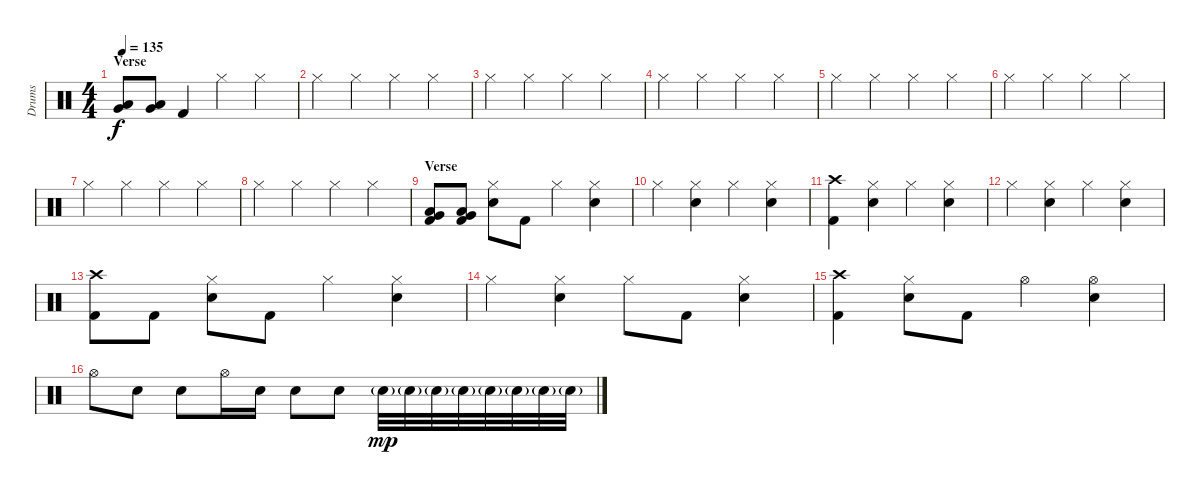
\track ("Drums" "Drums") {instrument percussion}
\staff {score}
\articulation defaults
\ts (4 4)
\section ("" "Verse")
\tempo 135
\clef neutral
\ks c
("Very Low Tom (hit)" "Low Tom (hit)").8{dy f} ("Very Low Tom (hit)" "Low Tom (hit)").8 "Kick (hit) 2".4 "Hi-Hat (closed)".4 "Hi-Hat (closed)".4 |
"Hi-Hat (closed)".4 "Hi-Hat (closed)".4 "Hi-Hat (closed)".4 "Hi-Hat (closed)".4 |
"Hi-Hat (closed)".4 "Hi-Hat (closed)".4 "Hi-Hat (closed)".4 "Hi-Hat (closed)".4 |
"Hi-Hat (closed)".4 "Hi-Hat (closed)".4 "Hi-Hat (closed)".4 "Hi-Hat (closed)".4 |
"Hi-Hat (closed)".4 "Hi-Hat (closed)".4 "Hi-Hat (closed)".4 "Hi-Hat (closed)".4 |
"Hi-Hat (closed)".4 "Hi-Hat (closed)".4 "Hi-Hat (closed)".4 "Hi-Hat (closed)".4 |
"Hi-Hat (closed)".4 "Hi-Hat (closed)".4 "Hi-Hat (closed)".4 "Hi-Hat (closed)".4 |
"Hi-Hat (closed)".4 "Hi-Hat (closed)".4 "Hi-Hat (closed)".4 "Hi-Hat (closed)".4 |
\section ("" "Verse")
("Very Low Tom (hit)" "Low Tom (hit)" "Kick (hit) 2").8 ("Very Low Tom (hit)" "Low Tom (hit)" "Kick (hit) 2").8 ("Hi-Hat (closed)" "Snare (hit) 2").8 "Kick (hit) 2".8 "Hi-Hat (closed)".4 ("Hi-Hat (closed)" "Snare (hit) 2").4 |
"Hi-Hat (closed)".4 ("Hi-Hat (closed)" "Snare (hit) 2").4 "Hi-Hat (closed)".4 ("Hi-Hat (closed)" "Snare (hit) 2").4 |
("Crash high (hit)" "Kick (hit) 2").4 ("Hi-Hat (closed)" "Snare (hit) 2").4 "Hi-Hat (closed)".4 ("Hi-Hat (closed)" "Snare (hit) 2").4 |
"Hi-Hat (closed)".4 ("Hi-Hat (closed)" "Snare (hit) 2").4 "Hi-Hat (closed)".4 ("Hi-Hat (closed)" "Snare (hit) 2").4 |
("Crash high (hit)" "Kick (hit) 2").8 "Kick (hit) 2".8 ("Hi-Hat (closed)" "Snare (hit) 2").8 "Kick (hit) 2".8 "Hi-Hat (closed)".4 ("Hi-Hat (closed)" "Snare (hit) 2").4 |
"Hi-Hat (closed)".4 ("Hi-Hat (closed)" "Snare (hit) 2").4 "Hi-Hat (closed)".8 "Kick (hit) 2".8 ("Hi-Hat (closed)" "Snare (hit) 2").4 |
("Crash high (hit)" "Kick (hit) 2").4 ("Hi-Hat (closed)" "Snare (hit) 2").8 "Kick (hit) 2".8 "Hi-Hat (open)".4 ("Hi-Hat (open)" "Snare (hit) 2").4 |
"Hi-Hat (open)".8 "Snare (hit) 2".8 "Snare (hit) 2".8 "Hi-Hat (open)".16 "Snare (hit) 2".16 "Snare (hit) 2".8 "Snare (hit) 2".8 "Snare (hit) 2"{g}.32{dy mp} "Snare (hit) 2"{g}.32 "Snare (hit) 2"{g}.32 "Snare (hit) 2"{g}.32 "Snare (hit) 2"{g}.32 "Snare (hit) 2"{g}.32 "Snare (hit) 2"{g}.32 "Snare (hit) 2"{g}.32
